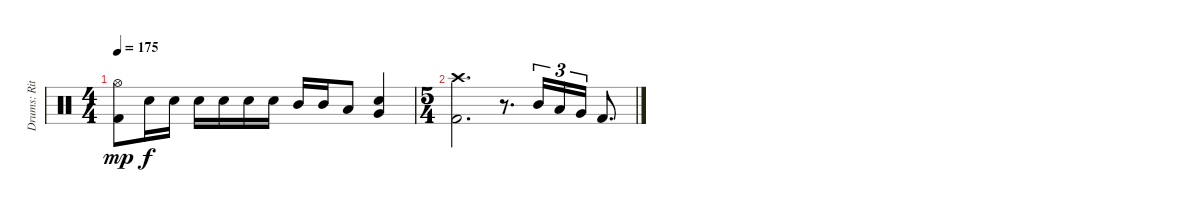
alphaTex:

\track ("Drums: Ritsu Tainaka" "Drums: Rit") {instrument percussion}
\staff {score}
\articulation defaults
\ts (4 4)
\tempo 175
\clef neutral
\ks c
("Hi-Hat (open)" "Kick (hit) 2").8{dy mp} "Snare (hit) 2".16{dy f} "Snare (hit) 2".16 "Snare (hit) 2".16 "Snare (hit) 2".16 "Snare (hit) 2".16 "Snare (hit) 2".16 "Mid Tom (hit)".16 "Mid Tom (hit)".16 "Low Tom (hit)".8 ("Snare (hit) 2" "Very Low Tom (hit)").4 |
\ts (5 4)
("Crash high (hit)" "Kick (hit) 2").2{d} r.8{d} "Mid Tom (hit)".16{tu (3 2)} "Low Tom (hit)".16{tu (3 2)} "Very Low Tom (hit)".16{tu (3 2)} "Kick (hit) 2".8{d}
